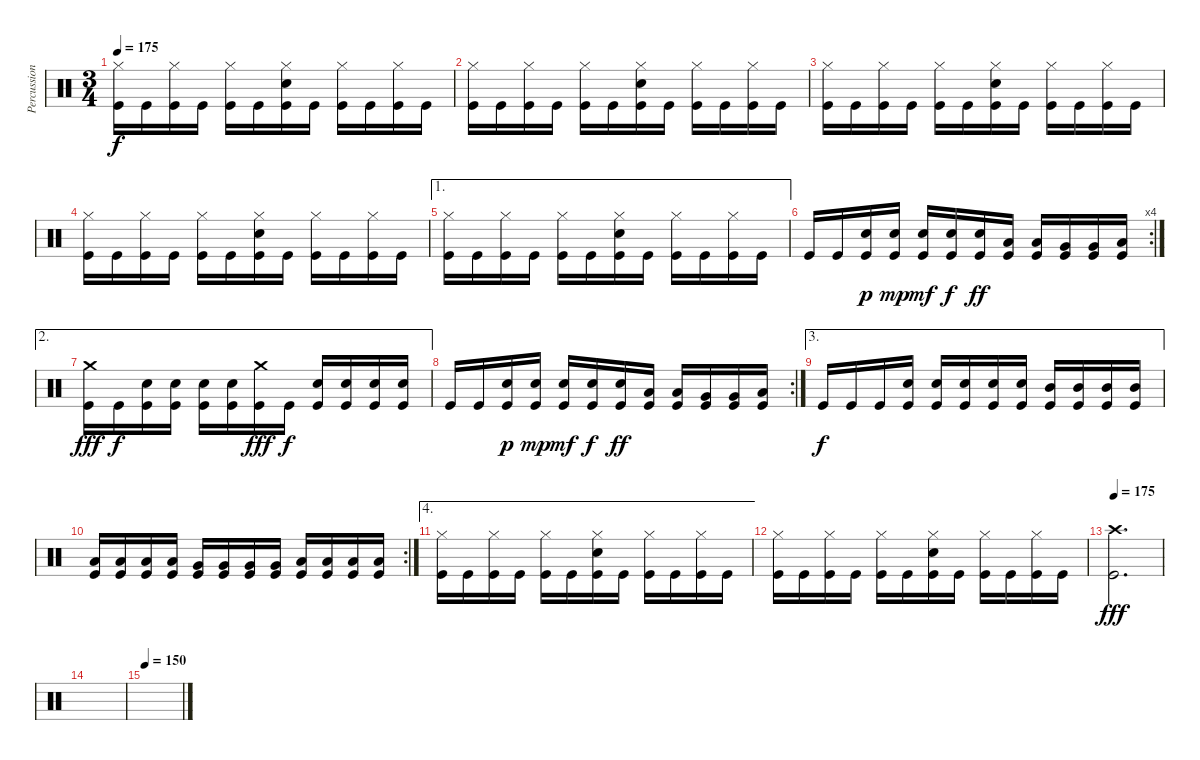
\track ("Percussion" "Percussion") {instrument percussion}
\staff {score}
\articulation defaults
\ts (3 4)
\tempo 175
\clef neutral
\ks c
("Hi-Hat (closed)" "Kick (hit)").16{dy f} "Kick (hit)".16 ("Hi-Hat (closed)" "Kick (hit)").16 "Kick (hit)".16 ("Hi-Hat (closed)" "Kick (hit)").16 "Kick (hit)".16 ("Hi-Hat (closed)" "Snare (hit) 2" "Kick (hit)").16 "Kick (hit)".16 ("Hi-Hat (closed)" "Kick (hit)").16 "Kick (hit)".16 ("Hi-Hat (closed)" "Kick (hit)").16 "Kick (hit)".16 |
("Hi-Hat (closed)" "Kick (hit)").16 "Kick (hit)".16 ("Hi-Hat (closed)" "Kick (hit)").16 "Kick (hit)".16 ("Hi-Hat (closed)" "Kick (hit)").16 "Kick (hit)".16 ("Hi-Hat (closed)" "Snare (hit) 2" "Kick (hit)").16 "Kick (hit)".16 ("Hi-Hat (closed)" "Kick (hit)").16 "Kick (hit)".16 ("Hi-Hat (closed)" "Kick (hit)").16 "Kick (hit)".16 |
("Hi-Hat (closed)" "Kick (hit)").16 "Kick (hit)".16 ("Hi-Hat (closed)" "Kick (hit)").16 "Kick (hit)".16 ("Hi-Hat (closed)" "Kick (hit)").16 "Kick (hit)".16 ("Hi-Hat (closed)" "Snare (hit) 2" "Kick (hit)").16 "Kick (hit)".16 ("Hi-Hat (closed)" "Kick (hit)").16 "Kick (hit)".16 ("Hi-Hat (closed)" "Kick (hit)").16 "Kick (hit)".16 |
("Hi-Hat (closed)" "Kick (hit)").16 "Kick (hit)".16 ("Hi-Hat (closed)" "Kick (hit)").16 "Kick (hit)".16 ("Hi-Hat (closed)" "Kick (hit)").16 "Kick (hit)".16 ("Hi-Hat (closed)" "Snare (hit) 2" "Kick (hit)").16 "Kick (hit)".16 ("Hi-Hat (closed)" "Kick (hit)").16 "Kick (hit)".16 ("Hi-Hat (closed)" "Kick (hit)").16 "Kick (hit)".16 |
\ae 1
("Hi-Hat (closed)" "Kick (hit)").16 "Kick (hit)".16 ("Hi-Hat (closed)" "Kick (hit)").16 "Kick (hit)".16 ("Hi-Hat (closed)" "Kick (hit)").16 "Kick (hit)".16 ("Hi-Hat (closed)" "Snare (hit) 2" "Kick (hit)").16 "Kick (hit)".16 ("Hi-Hat (closed)" "Kick (hit)").16 "Kick (hit)".16 ("Hi-Hat (closed)" "Kick (hit)").16 "Kick (hit)".16 |
\rc 4 "Kick (hit)".16 "Kick (hit)".16
("Snare (hit) 2" "Kick (hit)").16{dy p} ("Snare (hit) 2" "Kick (hit)").16{dy mp} ("Snare (hit) 2" "Kick (hit)").16{dy mf} ("Snare (hit) 2" "Kick (hit)").16{dy f} ("Snare (hit) 2" "Kick (hit)").16{dy ff} ("Low Tom (hit)" "Kick (hit)").16 ("Low Tom (hit)" "Kick (hit)").16 ("Very Low Tom (hit)" "Kick (hit)").16 ("Very Low Tom (hit)" "Kick (hit)").16 ("Low Floor Tom (hit)" "Kick (hit)").16 |
\ae 2
("Crash medium (hit)" "Kick (hit)").16{dy fff} "Kick (hit)".16{dy f} ("Snare (hit) 2" "Kick (hit)").16 ("Snare (hit) 2" "Kick (hit)").16 ("Snare (hit) 2" "Kick (hit)").16 ("Snare (hit) 2" "Kick (hit)").16 ("Crash medium (hit)" "Kick (hit)").16{dy fff} "Kick (hit)".16{dy f} ("Snare (hit) 2" "Kick (hit)").16 ("Snare (hit) 2" "Kick (hit)").16 ("Snare (hit) 2" "Kick (hit)").16 ("Snare (hit) 2" "Kick (hit)").16 |
\rc 2 "Kick (hit)".16 "Kick (hit)".16
("Snare (hit) 2" "Kick (hit)").16{dy p} ("Snare (hit) 2" "Kick (hit)").16{dy mp} ("Snare (hit) 2" "Kick (hit)").16{dy mf} ("Snare (hit) 2" "Kick (hit)").16{dy f} ("Snare (hit) 2" "Kick (hit)").16{dy ff} ("Low Tom (hit)" "Kick (hit)").16 ("Low Tom (hit)" "Kick (hit)").16 ("Very Low Tom (hit)" "Kick (hit)").16 ("Very Low Tom (hit)" "Kick (hit)").16 ("Low Floor Tom (hit)" "Kick (hit)").16 |
\ae 3 "Kick (hit)".16{dy f} "Kick (hit)".16 "Kick (hit)".16
("Snare (hit) 2" "Kick (hit)").16 ("Snare (hit) 2" "Kick (hit)").16 ("Snare (hit) 2" "Kick (hit)").16 ("Snare (hit) 2" "Kick (hit)").16 ("Snare (hit) 2" "Kick (hit)").16 ("Mid Tom (hit)" "Kick (hit)").16 ("Mid Tom (hit)" "Kick (hit)").16 ("Mid Tom (hit)" "Kick (hit)").16 ("Mid Tom (hit)" "Kick (hit)").16 |
\rc 2
("Low Tom (hit)" "Kick (hit)").16 ("Low Tom (hit)" "Kick (hit)").16 ("Low Tom (hit)" "Kick (hit)").16 ("Low Tom (hit)" "Kick (hit)").16 ("Very Low Tom (hit)" "Kick (hit)").16 ("Very Low Tom (hit)" "Kick (hit)").16 ("Very Low Tom (hit)" "Kick (hit)").16 ("Very Low Tom (hit)" "Kick (hit)").16 ("Low Floor Tom (hit)" "Kick (hit)").16 ("Low Floor Tom (hit)" "Kick (hit)").16 ("Low Floor Tom (hit)" "Kick (hit)").16 ("Low Floor Tom (hit)" "Kick (hit)").16 |
\ae 4
("Hi-Hat (closed)" "Kick (hit)").16 "Kick (hit)".16 ("Hi-Hat (closed)" "Kick (hit)").16 "Kick (hit)".16 ("Hi-Hat (closed)" "Kick (hit)").16 "Kick (hit)".16 ("Hi-Hat (closed)" "Snare (hit) 2" "Kick (hit)").16 "Kick (hit)".16 ("Hi-Hat (closed)" "Kick (hit)").16 "Kick (hit)".16 ("Hi-Hat (closed)" "Kick (hit)").16 "Kick (hit)".16 |
("Hi-Hat (closed)" "Kick (hit)").16 "Kick (hit)".16 ("Hi-Hat (closed)" "Kick (hit)").16 "Kick (hit)".16 ("Hi-Hat (closed)" "Kick (hit)").16 "Kick (hit)".16 ("Hi-Hat (closed)" "Snare (hit) 2" "Kick (hit)").16 "Kick (hit)".16 ("Hi-Hat (closed)" "Kick (hit)").16 "Kick (hit)".16 ("Hi-Hat (closed)" "Kick (hit)").16 "Kick (hit)".16 |
\tempo 175
("Crash high (hit)" "Kick (hit)").2{d dy fff} |
|
\tempo 150
